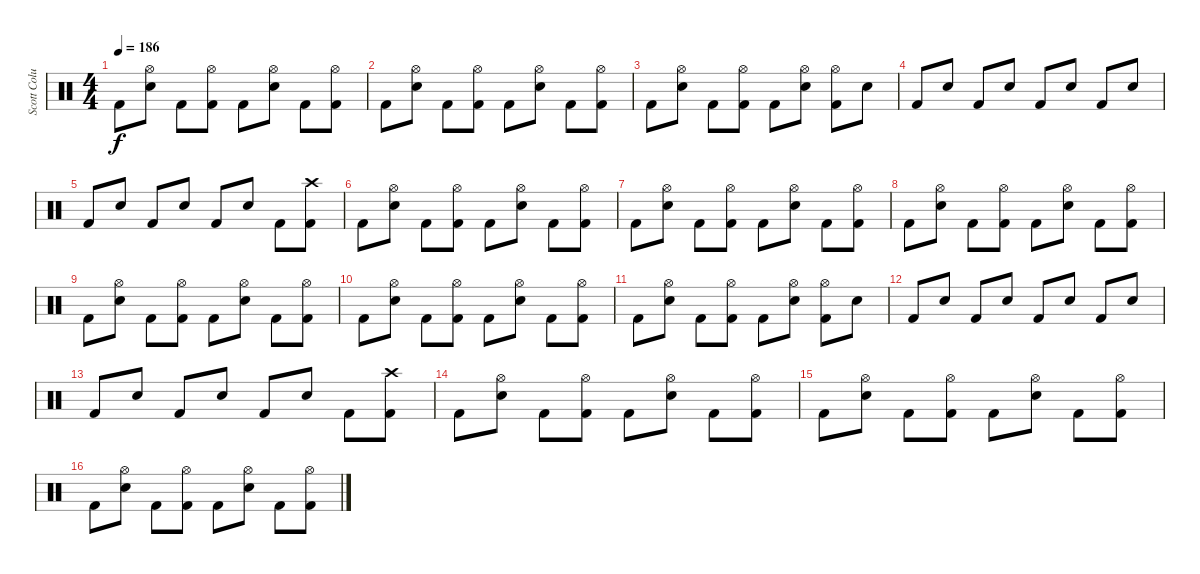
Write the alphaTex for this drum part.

\track ("Scott Columbus" "Scott Colu") {instrument percussion}
\staff {score}
\articulation defaults
\ts (4 4)
\tempo 186
\clef neutral
\ks c "Kick (hit) 2".8{dy f}
("Hi-Hat (open)" "Snare (hit) 2").8 "Kick (hit) 2".8 ("Hi-Hat (open)" "Kick (hit) 2").8 "Kick (hit) 2".8 ("Hi-Hat (open)" "Snare (hit) 2").8 "Kick (hit) 2".8 ("Hi-Hat (open)" "Kick (hit) 2").8 |
"Kick (hit) 2".8 ("Hi-Hat (open)" "Snare (hit) 2").8 "Kick (hit) 2".8 ("Hi-Hat (open)" "Kick (hit) 2").8 "Kick (hit) 2".8 ("Hi-Hat (open)" "Snare (hit) 2").8 "Kick (hit) 2".8 ("Hi-Hat (open)" "Kick (hit) 2").8 |
"Kick (hit) 2".8 ("Hi-Hat (open)" "Snare (hit) 2").8 "Kick (hit) 2".8 ("Hi-Hat (open)" "Kick (hit) 2").8 "Kick (hit) 2".8 ("Hi-Hat (open)" "Snare (hit) 2").8 ("Hi-Hat (open)" "Kick (hit) 2").8 "Snare (hit) 2".8 |
"Kick (hit) 2".8 "Snare (hit) 2".8 "Kick (hit) 2".8 "Snare (hit) 2".8 "Kick (hit) 2".8 "Snare (hit) 2".8 "Kick (hit) 2".8 "Snare (hit) 2".8 |
"Kick (hit) 2".8 "Snare (hit) 2".8 "Kick (hit) 2".8 "Snare (hit) 2".8 "Kick (hit) 2".8 "Snare (hit) 2".8 "Kick (hit) 2".8 ("Crash high (hit)" "Kick (hit) 2").8 |
"Kick (hit) 2".8 ("Hi-Hat (open)" "Snare (hit) 2").8 "Kick (hit) 2".8 ("Hi-Hat (open)" "Kick (hit) 2").8 "Kick (hit) 2".8 ("Hi-Hat (open)" "Snare (hit) 2").8 "Kick (hit) 2".8 ("Hi-Hat (open)" "Kick (hit) 2").8 |
"Kick (hit) 2".8 ("Hi-Hat (open)" "Snare (hit) 2").8 "Kick (hit) 2".8 ("Hi-Hat (open)" "Kick (hit) 2").8 "Kick (hit) 2".8 ("Hi-Hat (open)" "Snare (hit) 2").8 "Kick (hit) 2".8 ("Hi-Hat (open)" "Kick (hit) 2").8 |
"Kick (hit) 2".8 ("Hi-Hat (open)" "Snare (hit) 2").8 "Kick (hit) 2".8 ("Hi-Hat (open)" "Kick (hit) 2").8 "Kick (hit) 2".8 ("Hi-Hat (open)" "Snare (hit) 2").8 "Kick (hit) 2".8 ("Hi-Hat (open)" "Kick (hit) 2").8 |
"Kick (hit) 2".8 ("Hi-Hat (open)" "Snare (hit) 2").8 "Kick (hit) 2".8 ("Hi-Hat (open)" "Kick (hit) 2").8 "Kick (hit) 2".8 ("Hi-Hat (open)" "Snare (hit) 2").8 "Kick (hit) 2".8 ("Hi-Hat (open)" "Kick (hit) 2").8 |
"Kick (hit) 2".8 ("Hi-Hat (open)" "Snare (hit) 2").8 "Kick (hit) 2".8 ("Hi-Hat (open)" "Kick (hit) 2").8 "Kick (hit) 2".8 ("Hi-Hat (open)" "Snare (hit) 2").8 "Kick (hit) 2".8 ("Hi-Hat (open)" "Kick (hit) 2").8 |
"Kick (hit) 2".8 ("Hi-Hat (open)" "Snare (hit) 2").8 "Kick (hit) 2".8 ("Hi-Hat (open)" "Kick (hit) 2").8 "Kick (hit) 2".8 ("Hi-Hat (open)" "Snare (hit) 2").8 ("Hi-Hat (open)" "Kick (hit) 2").8 "Snare (hit) 2".8 |
"Kick (hit) 2".8 "Snare (hit) 2".8 "Kick (hit) 2".8 "Snare (hit) 2".8 "Kick (hit) 2".8 "Snare (hit) 2".8 "Kick (hit) 2".8 "Snare (hit) 2".8 |
"Kick (hit) 2".8 "Snare (hit) 2".8 "Kick (hit) 2".8 "Snare (hit) 2".8 "Kick (hit) 2".8 "Snare (hit) 2".8 "Kick (hit) 2".8 ("Crash high (hit)" "Kick (hit) 2").8 |
"Kick (hit) 2".8 ("Hi-Hat (open)" "Snare (hit) 2").8 "Kick (hit) 2".8 ("Hi-Hat (open)" "Kick (hit) 2").8 "Kick (hit) 2".8 ("Hi-Hat (open)" "Snare (hit) 2").8 "Kick (hit) 2".8 ("Hi-Hat (open)" "Kick (hit) 2").8 |
"Kick (hit) 2".8 ("Hi-Hat (open)" "Snare (hit) 2").8 "Kick (hit) 2".8 ("Hi-Hat (open)" "Kick (hit) 2").8 "Kick (hit) 2".8 ("Hi-Hat (open)" "Snare (hit) 2").8 "Kick (hit) 2".8 ("Hi-Hat (open)" "Kick (hit) 2").8 |
"Kick (hit) 2".8 ("Hi-Hat (open)" "Snare (hit) 2").8 "Kick (hit) 2".8 ("Hi-Hat (open)" "Kick (hit) 2").8 "Kick (hit) 2".8 ("Hi-Hat (open)" "Snare (hit) 2").8 "Kick (hit) 2".8 ("Hi-Hat (open)" "Kick (hit) 2").8
